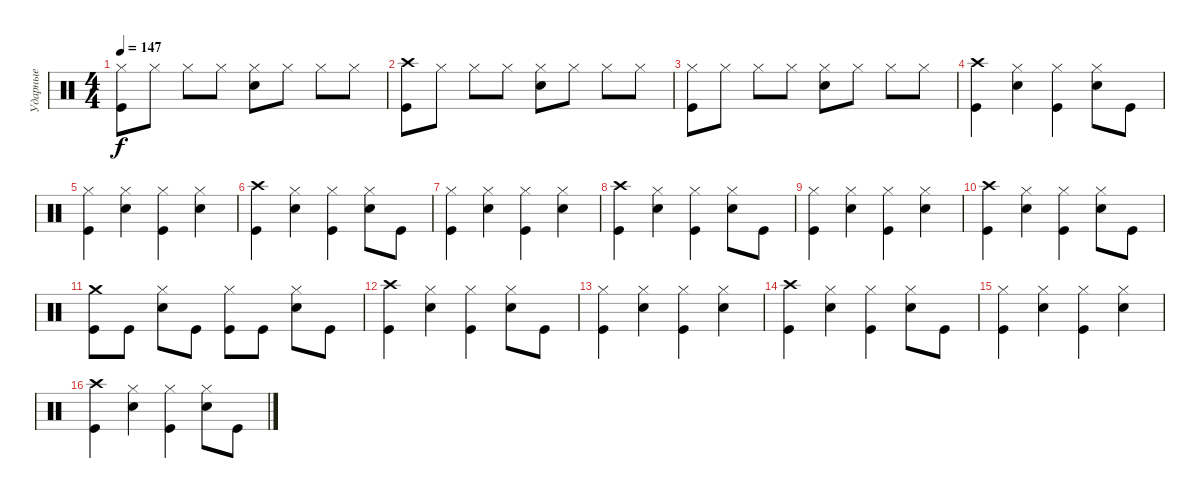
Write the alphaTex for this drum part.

\track ("Ударные" "Ударные") {instrument percussion}
\staff {score}
\articulation defaults
\ts (4 4)
\tempo 147
\clef neutral
\ks c
("Hi-Hat (closed)" "Kick (hit)").8{dy f} "Hi-Hat (closed)".8 "Hi-Hat (closed)".8 "Hi-Hat (closed)".8 ("Hi-Hat (closed)" "Electric Snare (hit)").8 "Hi-Hat (closed)".8 "Hi-Hat (closed)".8 "Hi-Hat (closed)".8 |
("Crash high (hit)" "Kick (hit)").8 "Hi-Hat (closed)".8 "Hi-Hat (closed)".8 "Hi-Hat (closed)".8 ("Hi-Hat (closed)" "Electric Snare (hit)").8 "Hi-Hat (closed)".8 "Hi-Hat (closed)".8 "Hi-Hat (closed)".8 |
("Hi-Hat (closed)" "Kick (hit)").8 "Hi-Hat (closed)".8 "Hi-Hat (closed)".8 "Hi-Hat (closed)".8 ("Hi-Hat (closed)" "Electric Snare (hit)").8 "Hi-Hat (closed)".8 "Hi-Hat (closed)".8 "Hi-Hat (closed)".8 |
("Crash high (hit)" "Kick (hit)").4 ("Hi-Hat (closed)" "Electric Snare (hit)").4 ("Hi-Hat (closed)" "Kick (hit)").4 ("Hi-Hat (closed)" "Electric Snare (hit)").8 "Kick (hit)".8 |
("Hi-Hat (closed)" "Kick (hit)").4 ("Hi-Hat (closed)" "Electric Snare (hit)").4 ("Hi-Hat (closed)" "Kick (hit)").4 ("Hi-Hat (closed)" "Electric Snare (hit)").4 |
("Crash high (hit)" "Kick (hit)").4 ("Hi-Hat (closed)" "Electric Snare (hit)").4 ("Hi-Hat (closed)" "Kick (hit)").4 ("Hi-Hat (closed)" "Electric Snare (hit)").8 "Kick (hit)".8 |
("Hi-Hat (closed)" "Kick (hit)").4 ("Hi-Hat (closed)" "Electric Snare (hit)").4 ("Hi-Hat (closed)" "Kick (hit)").4 ("Hi-Hat (closed)" "Electric Snare (hit)").4 |
("Crash high (hit)" "Kick (hit)").4 ("Hi-Hat (closed)" "Electric Snare (hit)").4 ("Hi-Hat (closed)" "Kick (hit)").4 ("Hi-Hat (closed)" "Electric Snare (hit)").8 "Kick (hit)".8 |
("Hi-Hat (closed)" "Kick (hit)").4 ("Hi-Hat (closed)" "Electric Snare (hit)").4 ("Hi-Hat (closed)" "Kick (hit)").4 ("Hi-Hat (closed)" "Electric Snare (hit)").4 |
("Crash high (hit)" "Kick (hit)").4 ("Hi-Hat (closed)" "Electric Snare (hit)").4 ("Hi-Hat (closed)" "Kick (hit)").4 ("Hi-Hat (closed)" "Electric Snare (hit)").8 "Kick (hit)".8 |
("Crash medium (hit)" "Kick (hit)").8 "Kick (hit)".8 ("Hi-Hat (closed)" "Electric Snare (hit)").8 "Kick (hit)".8 ("Hi-Hat (closed)" "Kick (hit)").8 "Kick (hit)".8 ("Hi-Hat (closed)" "Electric Snare (hit)").8 "Kick (hit)".8 |
("Crash high (hit)" "Kick (hit)").4 ("Hi-Hat (closed)" "Electric Snare (hit)").4 ("Hi-Hat (closed)" "Kick (hit)").4 ("Hi-Hat (closed)" "Electric Snare (hit)").8 "Kick (hit)".8 |
("Hi-Hat (closed)" "Kick (hit)").4 ("Hi-Hat (closed)" "Electric Snare (hit)").4 ("Hi-Hat (closed)" "Kick (hit)").4 ("Hi-Hat (closed)" "Electric Snare (hit)").4 |
("Crash high (hit)" "Kick (hit)").4 ("Hi-Hat (closed)" "Electric Snare (hit)").4 ("Hi-Hat (closed)" "Kick (hit)").4 ("Hi-Hat (closed)" "Electric Snare (hit)").8 "Kick (hit)".8 |
("Hi-Hat (closed)" "Kick (hit)").4 ("Hi-Hat (closed)" "Electric Snare (hit)").4 ("Hi-Hat (closed)" "Kick (hit)").4 ("Hi-Hat (closed)" "Electric Snare (hit)").4 |
("Crash high (hit)" "Kick (hit)").4 ("Hi-Hat (closed)" "Electric Snare (hit)").4 ("Hi-Hat (closed)" "Kick (hit)").4 ("Hi-Hat (closed)" "Electric Snare (hit)").8 "Kick (hit)".8
